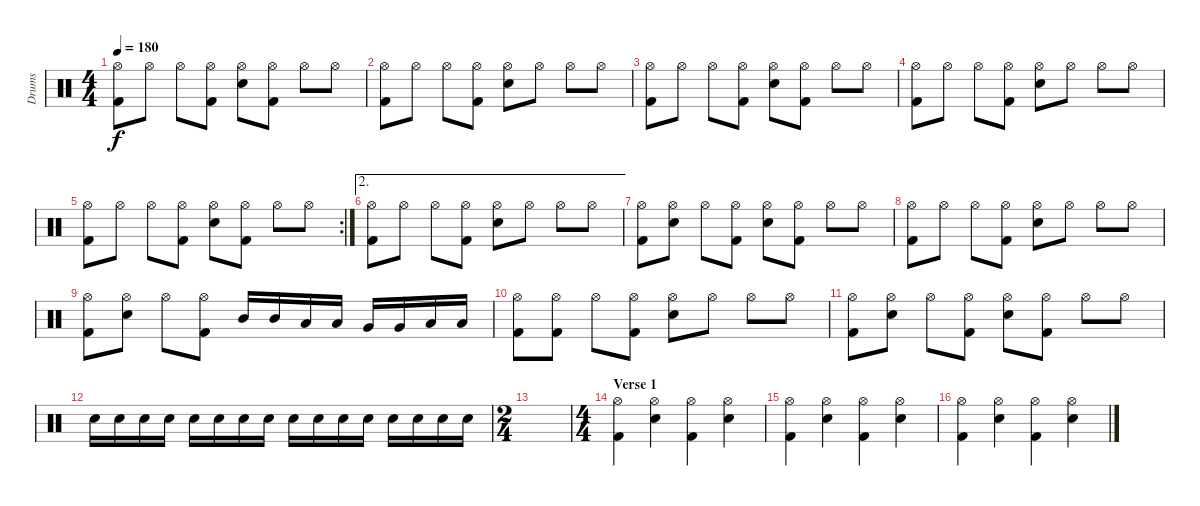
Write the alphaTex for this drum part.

\track ("Drums" "Drums") {instrument percussion}
\staff {score}
\articulation defaults
\ts (4 4)
\tempo 180
\clef neutral
\ks c
("Hi-Hat (open)" "Kick (hit) 2").8{dy f} "Hi-Hat (open)".8 "Hi-Hat (open)".8 ("Hi-Hat (open)" "Kick (hit) 2").8 ("Hi-Hat (open)" "Electric Snare (hit)").8 ("Hi-Hat (open)" "Kick (hit) 2").8 "Hi-Hat (open)".8 "Hi-Hat (open)".8 |
("Hi-Hat (open)" "Kick (hit) 2").8 "Hi-Hat (open)".8 "Hi-Hat (open)".8 ("Hi-Hat (open)" "Kick (hit) 2").8 ("Hi-Hat (open)" "Electric Snare (hit)").8 "Hi-Hat (open)".8 "Hi-Hat (open)".8 "Hi-Hat (open)".8 |
("Hi-Hat (open)" "Kick (hit) 2").8 "Hi-Hat (open)".8 "Hi-Hat (open)".8 ("Hi-Hat (open)" "Kick (hit) 2").8 ("Hi-Hat (open)" "Electric Snare (hit)").8 ("Hi-Hat (open)" "Kick (hit) 2").8 "Hi-Hat (open)".8 "Hi-Hat (open)".8 |
("Hi-Hat (open)" "Kick (hit) 2").8 "Hi-Hat (open)".8 "Hi-Hat (open)".8 ("Hi-Hat (open)" "Kick (hit) 2").8 ("Hi-Hat (open)" "Electric Snare (hit)").8 "Hi-Hat (open)".8 "Hi-Hat (open)".8 "Hi-Hat (open)".8 |
\rc 2
("Hi-Hat (open)" "Kick (hit) 2").8 "Hi-Hat (open)".8 "Hi-Hat (open)".8 ("Hi-Hat (open)" "Kick (hit) 2").8 ("Hi-Hat (open)" "Electric Snare (hit)").8 ("Hi-Hat (open)" "Kick (hit) 2").8 "Hi-Hat (open)".8 "Hi-Hat (open)".8 |
\ae 2
("Hi-Hat (open)" "Kick (hit) 2").8 "Hi-Hat (open)".8 "Hi-Hat (open)".8 ("Hi-Hat (open)" "Kick (hit) 2").8 ("Hi-Hat (open)" "Electric Snare (hit)").8 "Hi-Hat (open)".8 "Hi-Hat (open)".8 "Hi-Hat (open)".8 |
("Hi-Hat (open)" "Kick (hit) 2").8 ("Hi-Hat (open)" "Electric Snare (hit)").8 "Hi-Hat (open)".8 ("Hi-Hat (open)" "Kick (hit) 2").8 ("Hi-Hat (open)" "Electric Snare (hit)").8 ("Hi-Hat (open)" "Kick (hit) 2").8 "Hi-Hat (open)".8 "Hi-Hat (open)".8 |
("Hi-Hat (open)" "Kick (hit) 2").8 "Hi-Hat (open)".8 "Hi-Hat (open)".8 ("Hi-Hat (open)" "Kick (hit) 2").8 ("Hi-Hat (open)" "Electric Snare (hit)").8 "Hi-Hat (open)".8 "Hi-Hat (open)".8 "Hi-Hat (open)".8 |
("Hi-Hat (open)" "Kick (hit) 2").8 ("Hi-Hat (open)" "Electric Snare (hit)").8 "Hi-Hat (open)".8 ("Hi-Hat (open)" "Kick (hit) 2").8 "Mid Tom (hit)".16 "Mid Tom (hit)".16 "Low Tom (hit)".16 "Low Tom (hit)".16 "Very Low Tom (hit)".16 "Very Low Tom (hit)".16 "Low Floor Tom (hit)".16 "Low Floor Tom (hit)".16 |
("Hi-Hat (open)" "Kick (hit) 2").8 ("Hi-Hat (open)" "Kick (hit) 2").8 "Hi-Hat (open)".8 ("Hi-Hat (open)" "Kick (hit) 2").8 ("Hi-Hat (open)" "Electric Snare (hit)").8 "Hi-Hat (open)".8 "Hi-Hat (open)".8 "Hi-Hat (open)".8 |
("Hi-Hat (open)" "Kick (hit) 2").8 ("Hi-Hat (open)" "Electric Snare (hit)").8 "Hi-Hat (open)".8 ("Hi-Hat (open)" "Kick (hit) 2").8 ("Hi-Hat (open)" "Electric Snare (hit)").8 ("Hi-Hat (open)" "Kick (hit) 2").8 "Hi-Hat (open)".8 "Hi-Hat (open)".8 |
"Electric Snare (hit)".16 "Electric Snare (hit)".16 "Electric Snare (hit)".16 "Electric Snare (hit)".16 "Electric Snare (hit)".16 "Electric Snare (hit)".16 "Electric Snare (hit)".16 "Electric Snare (hit)".16 "Electric Snare (hit)".16 "Electric Snare (hit)".16 "Electric Snare (hit)".16 "Electric Snare (hit)".16 "Electric Snare (hit)".16 "Electric Snare (hit)".16 "Electric Snare (hit)".16 "Electric Snare (hit)".16 |
\ts (2 4)
|
\ts (4 4)
\section ("" "Verse 1")
("Hi-Hat (open)" "Kick (hit) 2").4 ("Hi-Hat (open)" "Electric Snare (hit)").4 ("Hi-Hat (open)" "Kick (hit) 2").4 ("Hi-Hat (open)" "Electric Snare (hit)").4 |
("Hi-Hat (open)" "Kick (hit) 2").4 ("Hi-Hat (open)" "Electric Snare (hit)").4 ("Hi-Hat (open)" "Kick (hit) 2").4 ("Hi-Hat (open)" "Electric Snare (hit)").4 |
("Hi-Hat (open)" "Kick (hit) 2").4 ("Hi-Hat (open)" "Electric Snare (hit)").4 ("Hi-Hat (open)" "Kick (hit) 2").4 ("Hi-Hat (open)" "Electric Snare (hit)").4
